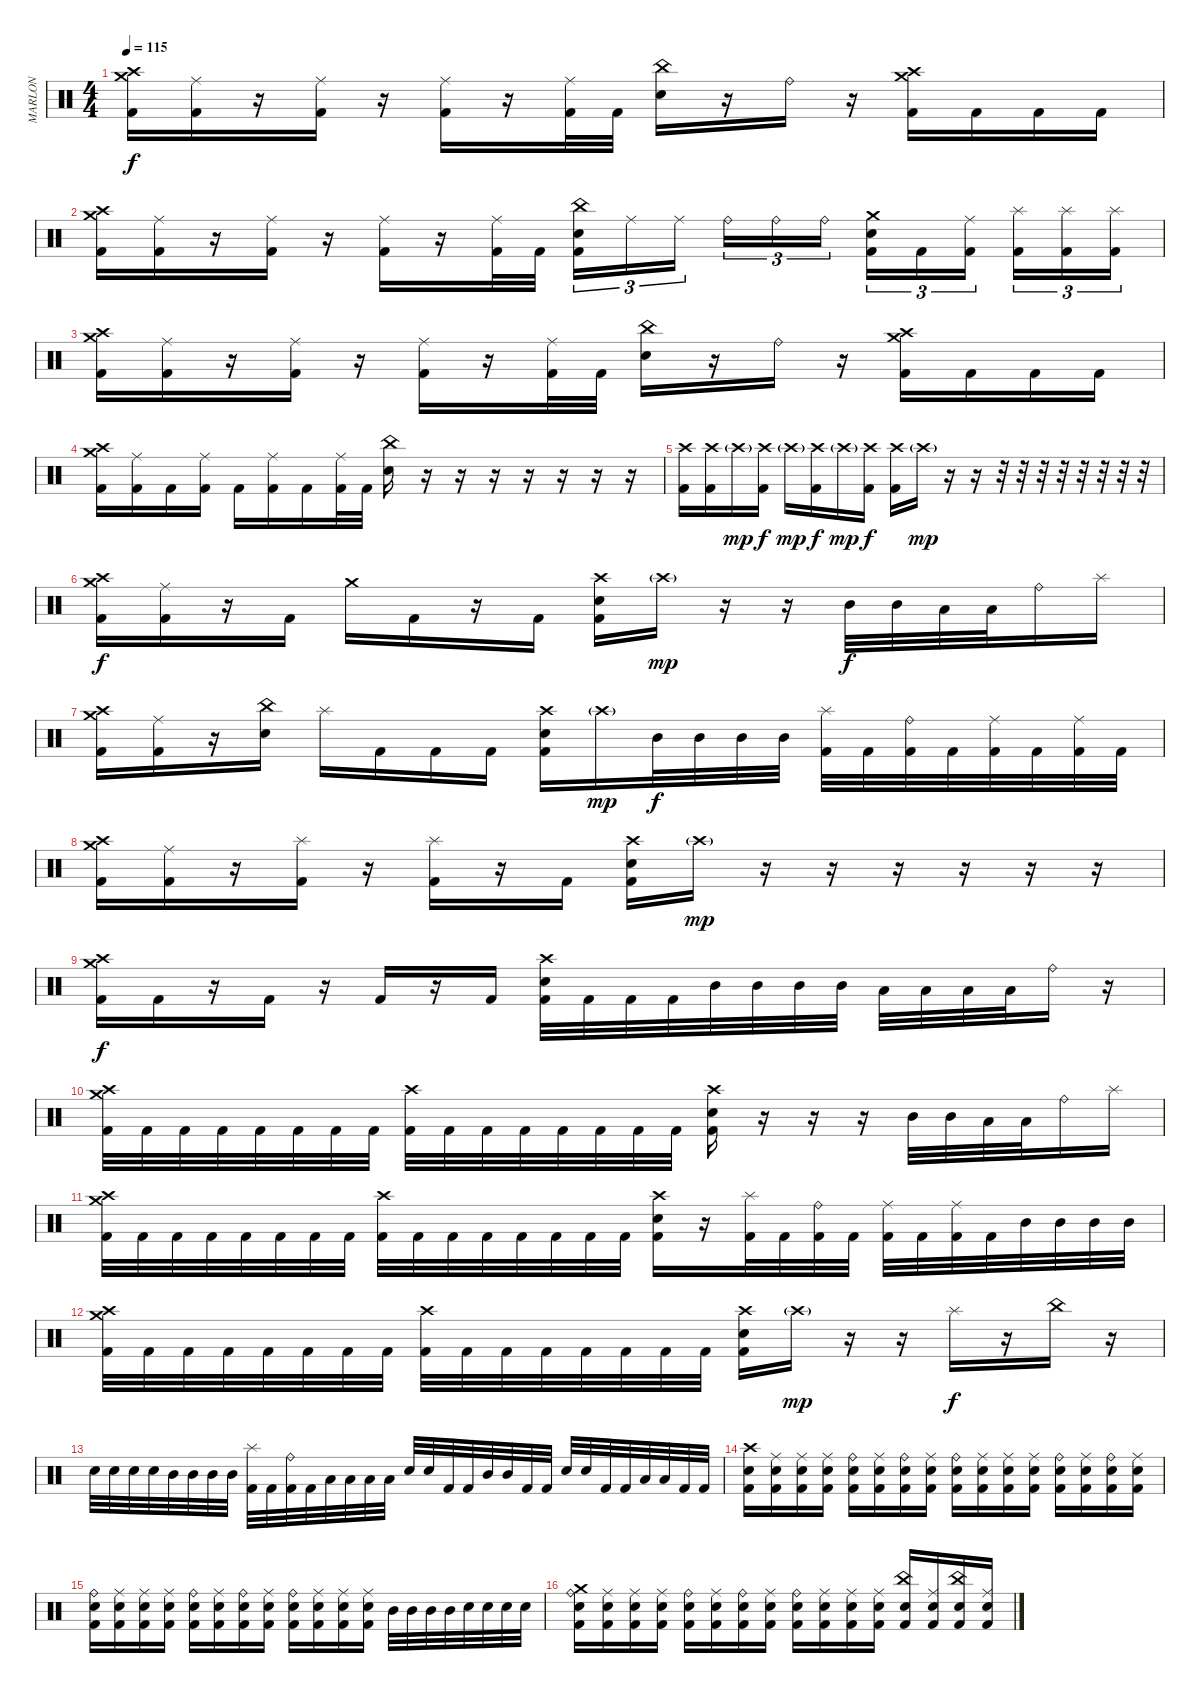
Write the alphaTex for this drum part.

\track ("MARLON" "MARLON") {instrument percussion}
\staff {score}
\articulation defaults
\ts (4 4)
\tempo 115
\clef neutral
\ks c
("Crash high (hit)" "Crash medium (hit)" "Kick (hit) 2").16{dy f} ("Ride (middle)" "Kick (hit) 2").16 r.16 ("Ride (middle)" "Kick (hit) 2").16 r.16 ("Ride (middle)" "Kick (hit) 2").16 r.16 ("Ride (middle)" "Kick (hit) 2").32 "Kick (hit) 2".32 ("China (hit)" "Electric Snare (hit)").16 r.16 "Ride (bell)".16 r.16 ("Crash medium (hit)" "Crash high (hit)" "Kick (hit) 2").16 "Kick (hit) 2".16 "Kick (hit) 2".16 "Kick (hit) 2".16 |
("Crash high (hit)" "Crash medium (hit)" "Kick (hit) 2").16 ("Ride (middle)" "Kick (hit) 2").16 r.16 ("Ride (middle)" "Kick (hit) 2").16 r.16 ("Ride (middle)" "Kick (hit) 2").16 r.16 ("Ride (middle)" "Kick (hit) 2").32 "Kick (hit) 2".32 ("China (hit)" "Electric Snare (hit)" "Kick (hit) 2").16{tu (3 2)} "Ride (middle)".16{tu (3 2)} "Ride (middle)".16{tu (3 2) beam splitsecondary} "Ride (bell)".16{tu (3 2)} "Ride (bell)".16{tu (3 2)} "Ride (bell)".16{tu (3 2)} ("Crash medium (hit)" "Electric Snare (hit)" "Kick (hit) 2").16{tu (3 2)} "Kick (hit) 2".16{tu (3 2)} ("Ride (middle)" "Kick (hit) 2").16{tu (3 2) beam splitsecondary} ("Splash (hit)" "Kick (hit) 2").16{tu (3 2)} ("Splash (hit)" "Kick (hit) 2").16{tu (3 2)} ("Splash (hit)" "Kick (hit) 2").16{tu (3 2)} |
("Crash high (hit)" "Crash medium (hit)" "Kick (hit) 2").16 ("Ride (middle)" "Kick (hit) 2").16 r.16 ("Ride (middle)" "Kick (hit) 2").16 r.16 ("Ride (middle)" "Kick (hit) 2").16 r.16 ("Ride (middle)" "Kick (hit) 2").32 "Kick (hit) 2".32 ("China (hit)" "Electric Snare (hit)").16 r.16 "Ride (bell)".16 r.16 ("Crash medium (hit)" "Crash high (hit)" "Kick (hit) 2").16 "Kick (hit) 2".16 "Kick (hit) 2".16 "Kick (hit) 2".16 |
("Crash high (hit)" "Crash medium (hit)" "Kick (hit) 2").16 ("Ride (middle)" "Kick (hit) 2").16 "Kick (hit) 2".16 ("Ride (middle)" "Kick (hit) 2").16 "Kick (hit) 2".16 ("Ride (middle)" "Kick (hit) 2").16 "Kick (hit) 2".16 ("Ride (middle)" "Kick (hit) 2").32 "Kick (hit) 2".32 ("China (hit)" "Electric Snare (hit)").16 r.16 r.16 r.16 r.16 r.16 r.16 r.16 |
("Crash high (hit)" "Kick (hit) 2").16 ("Crash high (hit)" "Kick (hit) 2").16 "Crash high (hit)"{g}.16{dy mp} ("Crash high (hit)" "Kick (hit) 2").16{dy f} "Crash high (hit)"{g}.16{dy mp} ("Crash high (hit)" "Kick (hit) 2").16{dy f} "Crash high (hit)"{g}.16{dy mp} ("Crash high (hit)" "Kick (hit) 2").16{dy f} ("Crash high (hit)" "Kick (hit) 2").16 "Crash high (hit)"{g}.16{dy mp} r.16 r.16 r.32 r.32 r.32 r.32 r.32 r.32 r.32 r.32 |
("Crash high (hit)" "Crash medium (hit)" "Kick (hit) 2").16{dy f} ("Ride (middle)" "Kick (hit) 2").16 r.16 "Kick (hit) 2".16 "Crash medium (hit)".16 "Kick (hit) 2".16 r.16 "Kick (hit) 2".16 ("Crash high (hit)" "Electric Snare (hit)" "Kick (hit) 2").16 "Crash high (hit)"{g}.16{dy mp} r.16 r.16 "Mid Tom (hit)".32{dy f} "Mid Tom (hit)".32 "Low Tom (hit)".32 "Low Tom (hit)".32 "Ride (bell)".16 "Splash (hit)".16 |
("Crash high (hit)" "Crash medium (hit)" "Kick (hit) 2").16 ("Ride (middle)" "Kick (hit) 2").16 r.16 ("China (hit)" "Electric Snare (hit)").16 "Splash (hit)".16 "Kick (hit) 2".16 "Kick (hit) 2".16 "Kick (hit) 2".16 ("Crash high (hit)" "Electric Snare (hit)" "Kick (hit) 2").16 "Crash high (hit)"{g}.16{dy mp} "Mid Tom (hit)".32{dy f} "Mid Tom (hit)".32 "Mid Tom (hit)".32 "Mid Tom (hit)".32 ("Splash (hit)" "Kick (hit) 2").32 "Kick (hit) 2".32 ("Ride (bell)" "Kick (hit) 2").32 "Kick (hit) 2".32 ("Ride (middle)" "Kick (hit) 2").32 "Kick (hit) 2".32 ("Ride (middle)" "Kick (hit) 2").32 "Kick (hit) 2".32 |
("Crash high (hit)" "Crash medium (hit)" "Kick (hit) 2").16 ("Ride (middle)" "Kick (hit) 2").16 r.16 ("Splash (hit)" "Kick (hit) 2").16 r.16 ("Splash (hit)" "Kick (hit) 2").16 r.16 "Kick (hit) 2".16 ("Crash high (hit)" "Electric Snare (hit)" "Kick (hit) 2").16 "Crash high (hit)"{g}.16{dy mp} r.16 r.16 r.16 r.16 r.16 r.16 |
("Crash high (hit)" "Crash medium (hit)" "Kick (hit) 2").16{dy f} "Kick (hit) 2".16 r.16 "Kick (hit) 2".16 r.16 "Kick (hit) 2".16 r.16 "Kick (hit) 2".16 ("Crash high (hit)" "Electric Snare (hit)" "Kick (hit) 2").32 "Kick (hit) 2".32 "Kick (hit) 2".32 "Kick (hit) 2".32 "Mid Tom (hit)".32 "Mid Tom (hit)".32 "Mid Tom (hit)".32 "Mid Tom (hit)".32 "Low Tom (hit)".32 "Low Tom (hit)".32 "Low Tom (hit)".32 "Low Tom (hit)".32 "Ride (bell)".16 r.16 |
("Crash high (hit)" "Crash medium (hit)" "Kick (hit) 2").32 "Kick (hit) 2".32 "Kick (hit) 2".32 "Kick (hit) 2".32 "Kick (hit) 2".32 "Kick (hit) 2".32 "Kick (hit) 2".32 "Kick (hit) 2".32 ("Crash high (hit)" "Kick (hit) 2").32 "Kick (hit) 2".32 "Kick (hit) 2".32 "Kick (hit) 2".32 "Kick (hit) 2".32 "Kick (hit) 2".32 "Kick (hit) 2".32 "Kick (hit) 2".32 ("Crash high (hit)" "Electric Snare (hit)" "Kick (hit) 2").16 r.16 r.16 r.16 "Mid Tom (hit)".32 "Mid Tom (hit)".32 "Low Tom (hit)".32 "Low Tom (hit)".32 "Ride (bell)".16 "Splash (hit)".16 |
("Crash high (hit)" "Crash medium (hit)" "Kick (hit) 2").32 "Kick (hit) 2".32 "Kick (hit) 2".32 "Kick (hit) 2".32 "Kick (hit) 2".32 "Kick (hit) 2".32 "Kick (hit) 2".32 "Kick (hit) 2".32 ("Crash high (hit)" "Kick (hit) 2").32 "Kick (hit) 2".32 "Kick (hit) 2".32 "Kick (hit) 2".32 "Kick (hit) 2".32 "Kick (hit) 2".32 "Kick (hit) 2".32 "Kick (hit) 2".32 ("Crash high (hit)" "Electric Snare (hit)" "Kick (hit) 2").16 r.16 ("Splash (hit)" "Kick (hit) 2").32 "Kick (hit) 2".32 ("Ride (bell)" "Kick (hit) 2").32 "Kick (hit) 2".32 ("Ride (middle)" "Kick (hit) 2").32 "Kick (hit) 2".32 ("Ride (middle)" "Kick (hit) 2").32 "Kick (hit) 2".32 "Mid Tom (hit)".32 "Mid Tom (hit)".32 "Mid Tom (hit)".32 "Mid Tom (hit)".32 |
("Crash high (hit)" "Crash medium (hit)" "Kick (hit) 2").32 "Kick (hit) 2".32 "Kick (hit) 2".32 "Kick (hit) 2".32 "Kick (hit) 2".32 "Kick (hit) 2".32 "Kick (hit) 2".32 "Kick (hit) 2".32 ("Crash high (hit)" "Kick (hit) 2").32 "Kick (hit) 2".32 "Kick (hit) 2".32 "Kick (hit) 2".32 "Kick (hit) 2".32 "Kick (hit) 2".32 "Kick (hit) 2".32 "Kick (hit) 2".32 ("Crash high (hit)" "Electric Snare (hit)" "Kick (hit) 2").16 "Crash high (hit)"{g}.16{dy mp} r.16 r.16 "Splash (hit)".16{dy f} r.16 "China (hit)".16 r.16 |
"Electric Snare (hit)".32 "Electric Snare (hit)".32 "Electric Snare (hit)".32 "Electric Snare (hit)".32 "Mid Tom (hit)".32 "Mid Tom (hit)".32 "Mid Tom (hit)".32 "Mid Tom (hit)".32 ("Splash (hit)" "Kick (hit) 2").32 "Kick (hit) 2".32 ("Ride (bell)" "Kick (hit) 2").32 "Kick (hit) 2".32 "Low Tom (hit)".32 "Low Tom (hit)".32 "Low Tom (hit)".32 "Low Tom (hit)".32 "Electric Snare (hit)".32 "Electric Snare (hit)".32 "Kick (hit) 2".32 "Kick (hit) 2".32 "Mid Tom (hit)".32 "Mid Tom (hit)".32 "Kick (hit) 2".32 "Kick (hit) 2".32 "Electric Snare (hit)".32 "Electric Snare (hit)".32 "Kick (hit) 2".32 "Kick (hit) 2".32 "Low Tom (hit)".32 "Low Tom (hit)".32 "Kick (hit) 2".32 "Kick (hit) 2".32 |
("Crash high (hit)" "Electric Snare (hit)" "Kick (hit) 2").16 ("Ride (middle)" "Electric Snare (hit)" "Kick (hit) 2").16 ("Ride (middle)" "Electric Snare (hit)" "Kick (hit) 2").16 ("Ride (middle)" "Electric Snare (hit)" "Kick (hit) 2").16 ("Ride (bell)" "Electric Snare (hit)" "Kick (hit) 2").16 ("Ride (middle)" "Electric Snare (hit)" "Kick (hit) 2").16 ("Ride (bell)" "Electric Snare (hit)" "Kick (hit) 2").16 ("Ride (middle)" "Electric Snare (hit)" "Kick (hit) 2").16 ("Ride (bell)" "Electric Snare (hit)" "Kick (hit) 2").16 ("Ride (middle)" "Electric Snare (hit)" "Kick (hit) 2").16 ("Ride (middle)" "Electric Snare (hit)" "Kick (hit) 2").16 ("Ride (middle)" "Electric Snare (hit)" "Kick (hit) 2").16 ("Ride (bell)" "Electric Snare (hit)" "Kick (hit) 2").16 ("Ride (middle)" "Electric Snare (hit)" "Kick (hit) 2").16 ("Ride (bell)" "Electric Snare (hit)" "Kick (hit) 2").16 ("Ride (middle)" "Electric Snare (hit)" "Kick (hit) 2").16 |
("Ride (bell)" "Electric Snare (hit)" "Kick (hit) 2").16 ("Ride (middle)" "Electric Snare (hit)" "Kick (hit) 2").16 ("Ride (middle)" "Electric Snare (hit)" "Kick (hit) 2").16 ("Ride (middle)" "Electric Snare (hit)" "Kick (hit) 2").16 ("Ride (bell)" "Electric Snare (hit)" "Kick (hit) 2").16 ("Ride (middle)" "Electric Snare (hit)" "Kick (hit) 2").16 ("Ride (bell)" "Electric Snare (hit)" "Kick (hit) 2").16 ("Ride (middle)" "Electric Snare (hit)" "Kick (hit) 2").16 ("Ride (bell)" "Electric Snare (hit)" "Kick (hit) 2").16 ("Ride (middle)" "Electric Snare (hit)" "Kick (hit) 2").16 ("Ride (middle)" "Electric Snare (hit)" "Kick (hit) 2").16 ("Ride (middle)" "Electric Snare (hit)" "Kick (hit) 2").16 "Mid Tom (hit)".32 "Mid Tom (hit)".32 "Mid Tom (hit)".32 "Mid Tom (hit)".32 "Electric Snare (hit)".32 "Electric Snare (hit)".32 "Electric Snare (hit)".32 "Electric Snare (hit)".32 |
("Crash medium (hit)" "Ride (bell)" "Electric Snare (hit)" "Kick (hit) 2").16 ("Ride (middle)" "Electric Snare (hit)" "Kick (hit) 2").16 ("Ride (middle)" "Electric Snare (hit)" "Kick (hit) 2").16 ("Ride (middle)" "Electric Snare (hit)" "Kick (hit) 2").16 ("Ride (bell)" "Electric Snare (hit)" "Kick (hit) 2").16 ("Ride (middle)" "Electric Snare (hit)" "Kick (hit) 2").16 ("Ride (bell)" "Electric Snare (hit)" "Kick (hit) 2").16 ("Ride (middle)" "Electric Snare (hit)" "Kick (hit) 2").16 ("Ride (bell)" "Electric Snare (hit)" "Kick (hit) 2").16 ("Ride (middle)" "Electric Snare (hit)" "Kick (hit) 2").16 ("Ride (middle)" "Electric Snare (hit)" "Kick (hit) 2").16 ("Ride (middle)" "Electric Snare (hit)" "Kick (hit) 2").16 ("China (hit)" "Electric Snare (hit)" "Kick (hit) 2").16 ("Ride (middle)" "Electric Snare (hit)" "Kick (hit) 2").16 ("China (hit)" "Electric Snare (hit)" "Kick (hit) 2").16 ("Ride (middle)" "Electric Snare (hit)" "Kick (hit) 2").16
